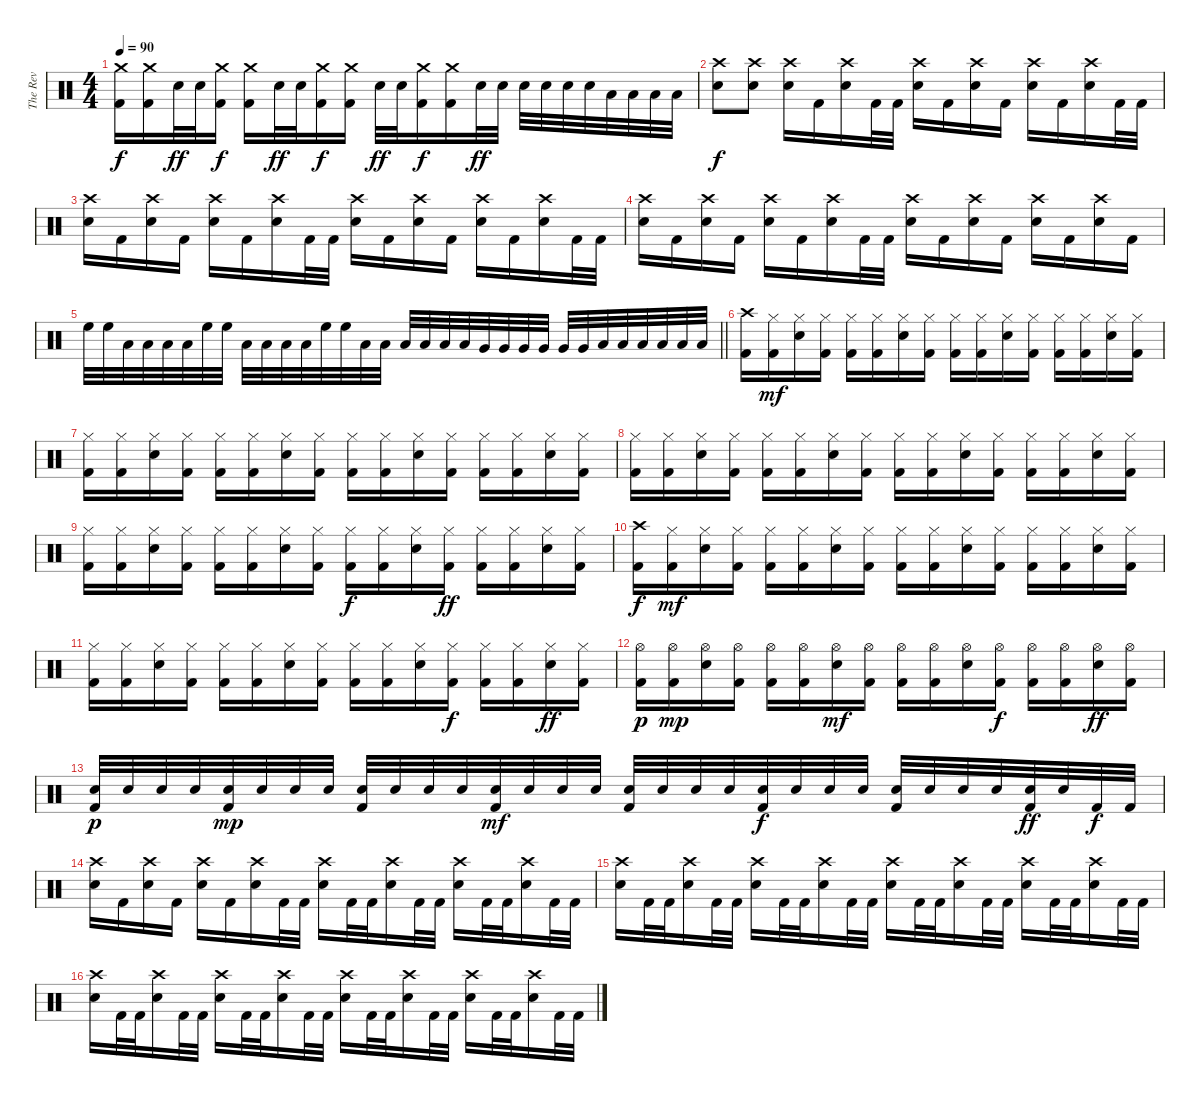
\track ("The Rev" "The Rev") {instrument percussion}
\staff {score}
\articulation defaults
\ts (4 4)
\tempo 90
\clef neutral
\ks c
("Crash medium (hit)" "Kick (hit) 2").16{dy f} ("Crash medium (hit)" "Kick (hit) 2").16 "Electric Snare (hit)".32{dy ff} "Electric Snare (hit)".32 ("Crash medium (hit)" "Kick (hit) 2").16{dy f} ("Crash medium (hit)" "Kick (hit) 2").16 "Electric Snare (hit)".32{dy ff} "Electric Snare (hit)".32 ("Crash medium (hit)" "Kick (hit) 2").16{dy f} ("Crash medium (hit)" "Kick (hit) 2").16 "Electric Snare (hit)".32{dy ff} "Electric Snare (hit)".32 ("Crash medium (hit)" "Kick (hit) 2").16{dy f} ("Crash medium (hit)" "Kick (hit) 2").16 "Electric Snare (hit)".32{dy ff} "Electric Snare (hit)".32 "Electric Snare (hit)".32 "Electric Snare (hit)".32 "Electric Snare (hit)".32 "Electric Snare (hit)".32 "Low Tom (hit)".32 "Low Tom (hit)".32 "Low Tom (hit)".32 "Low Tom (hit)".32 |
("Crash high (hit)" "Electric Snare (hit)").8{dy f} ("Crash high (hit)" "Electric Snare (hit)").8 ("Crash high (hit)" "Electric Snare (hit)").16 "Kick (hit) 2".16 ("Crash high (hit)" "Electric Snare (hit)").16 "Kick (hit) 2".32 "Kick (hit) 2".32 ("Crash high (hit)" "Electric Snare (hit)").16 "Kick (hit) 2".16 ("Crash high (hit)" "Electric Snare (hit)").16 "Kick (hit) 2".16 ("Crash high (hit)" "Electric Snare (hit)").16 "Kick (hit) 2".16 ("Crash high (hit)" "Electric Snare (hit)").16 "Kick (hit) 2".32 "Kick (hit) 2".32 |
("Crash high (hit)" "Electric Snare (hit)").16 "Kick (hit) 2".16 ("Crash high (hit)" "Electric Snare (hit)").16 "Kick (hit) 2".16 ("Crash high (hit)" "Electric Snare (hit)").16 "Kick (hit) 2".16 ("Crash high (hit)" "Electric Snare (hit)").16 "Kick (hit) 2".32 "Kick (hit) 2".32 ("Crash high (hit)" "Electric Snare (hit)").16 "Kick (hit) 2".16 ("Crash high (hit)" "Electric Snare (hit)").16 "Kick (hit) 2".16 ("Crash high (hit)" "Electric Snare (hit)").16 "Kick (hit) 2".16 ("Crash high (hit)" "Electric Snare (hit)").16 "Kick (hit) 2".32 "Kick (hit) 2".32 |
("Crash high (hit)" "Electric Snare (hit)").16 "Kick (hit) 2".16 ("Crash high (hit)" "Electric Snare (hit)").16 "Kick (hit) 2".16 ("Crash high (hit)" "Electric Snare (hit)").16 "Kick (hit) 2".16 ("Crash high (hit)" "Electric Snare (hit)").16 "Kick (hit) 2".32 "Kick (hit) 2".32 ("Crash high (hit)" "Electric Snare (hit)").16 "Kick (hit) 2".16 ("Crash high (hit)" "Electric Snare (hit)").16 "Kick (hit) 2".16 ("Crash high (hit)" "Electric Snare (hit)").16 "Kick (hit) 2".16 ("Crash high (hit)" "Electric Snare (hit)").16 "Kick (hit) 2".16 |
\barLineRight lightlight "High Floor Tom (hit)".32 "High Floor Tom (hit)".32 "Low Tom (hit)".32 "Low Tom (hit)".32 "Low Tom (hit)".32 "Low Tom (hit)".32 "High Floor Tom (hit)".32 "High Floor Tom (hit)".32 "Low Tom (hit)".32 "Low Tom (hit)".32 "Low Tom (hit)".32 "Low Tom (hit)".32 "High Floor Tom (hit)".32 "High Floor Tom (hit)".32 "Low Tom (hit)".32 "Low Tom (hit)".32 "Low Tom (hit)".32 "Low Tom (hit)".32 "Low Tom (hit)".32 "Low Tom (hit)".32 "Very Low Tom (hit)".32 "Very Low Tom (hit)".32 "Very Low Tom (hit)".32 "Very Low Tom (hit)".32 "Very Low Tom (hit)".32 "Very Low Tom (hit)".32 "Low Floor Tom (hit)".32 "Low Floor Tom (hit)".32 "Low Floor Tom (hit)".32 "Low Floor Tom (hit)".32 "Low Floor Tom (hit)".32 "Low Floor Tom (hit)".32
|
("Crash high (hit)" "Kick (hit) 2").16 ("Hi-Hat (closed)" "Kick (hit) 2").16{dy mf} ("Hi-Hat (closed)" "Electric Snare (hit)").16 ("Hi-Hat (closed)" "Kick (hit) 2").16 ("Hi-Hat (closed)" "Kick (hit) 2").16 ("Hi-Hat (closed)" "Kick (hit) 2").16 ("Hi-Hat (closed)" "Electric Snare (hit)").16 ("Hi-Hat (closed)" "Kick (hit) 2").16 ("Hi-Hat (closed)" "Kick (hit) 2").16 ("Hi-Hat (closed)" "Kick (hit) 2").16 ("Hi-Hat (closed)" "Electric Snare (hit)").16 ("Hi-Hat (closed)" "Kick (hit) 2").16 ("Hi-Hat (closed)" "Kick (hit) 2").16 ("Hi-Hat (closed)" "Kick (hit) 2").16 ("Hi-Hat (closed)" "Electric Snare (hit)").16 ("Hi-Hat (closed)" "Kick (hit) 2").16 |
("Hi-Hat (closed)" "Kick (hit) 2").16 ("Hi-Hat (closed)" "Kick (hit) 2").16 ("Hi-Hat (closed)" "Electric Snare (hit)").16 ("Hi-Hat (closed)" "Kick (hit) 2").16 ("Hi-Hat (closed)" "Kick (hit) 2").16 ("Hi-Hat (closed)" "Kick (hit) 2").16 ("Hi-Hat (closed)" "Electric Snare (hit)").16 ("Hi-Hat (closed)" "Kick (hit) 2").16 ("Hi-Hat (closed)" "Kick (hit) 2").16 ("Hi-Hat (closed)" "Kick (hit) 2").16 ("Hi-Hat (closed)" "Electric Snare (hit)").16 ("Hi-Hat (closed)" "Kick (hit) 2").16 ("Hi-Hat (closed)" "Kick (hit) 2").16 ("Hi-Hat (closed)" "Kick (hit) 2").16 ("Hi-Hat (closed)" "Electric Snare (hit)").16 ("Hi-Hat (closed)" "Kick (hit) 2").16 |
("Hi-Hat (closed)" "Kick (hit) 2").16 ("Hi-Hat (closed)" "Kick (hit) 2").16 ("Hi-Hat (closed)" "Electric Snare (hit)").16 ("Hi-Hat (closed)" "Kick (hit) 2").16 ("Hi-Hat (closed)" "Kick (hit) 2").16 ("Hi-Hat (closed)" "Kick (hit) 2").16 ("Hi-Hat (closed)" "Electric Snare (hit)").16 ("Hi-Hat (closed)" "Kick (hit) 2").16 ("Hi-Hat (closed)" "Kick (hit) 2").16 ("Hi-Hat (closed)" "Kick (hit) 2").16 ("Hi-Hat (closed)" "Electric Snare (hit)").16 ("Hi-Hat (closed)" "Kick (hit) 2").16 ("Hi-Hat (closed)" "Kick (hit) 2").16 ("Hi-Hat (closed)" "Kick (hit) 2").16 ("Hi-Hat (closed)" "Electric Snare (hit)").16 ("Hi-Hat (closed)" "Kick (hit) 2").16 |
("Hi-Hat (closed)" "Kick (hit) 2").16 ("Hi-Hat (closed)" "Kick (hit) 2").16 ("Hi-Hat (closed)" "Electric Snare (hit)").16 ("Hi-Hat (closed)" "Kick (hit) 2").16 ("Hi-Hat (closed)" "Kick (hit) 2").16 ("Hi-Hat (closed)" "Kick (hit) 2").16 ("Hi-Hat (closed)" "Electric Snare (hit)").16 ("Hi-Hat (closed)" "Kick (hit) 2").16 ("Hi-Hat (closed)" "Kick (hit) 2").16{dy f} ("Hi-Hat (closed)" "Kick (hit) 2").16 ("Hi-Hat (closed)" "Electric Snare (hit)").16 ("Hi-Hat (closed)" "Kick (hit) 2").16{dy ff} ("Hi-Hat (closed)" "Kick (hit) 2").16 ("Hi-Hat (closed)" "Kick (hit) 2").16 ("Hi-Hat (closed)" "Electric Snare (hit)").16 ("Hi-Hat (closed)" "Kick (hit) 2").16 |
("Crash high (hit)" "Kick (hit) 2").16{dy f} ("Hi-Hat (closed)" "Kick (hit) 2").16{dy mf} ("Hi-Hat (closed)" "Electric Snare (hit)").16 ("Hi-Hat (closed)" "Kick (hit) 2").16 ("Hi-Hat (closed)" "Kick (hit) 2").16 ("Hi-Hat (closed)" "Kick (hit) 2").16 ("Hi-Hat (closed)" "Electric Snare (hit)").16 ("Hi-Hat (closed)" "Kick (hit) 2").16 ("Hi-Hat (closed)" "Kick (hit) 2").16 ("Hi-Hat (closed)" "Kick (hit) 2").16 ("Hi-Hat (closed)" "Electric Snare (hit)").16 ("Hi-Hat (closed)" "Kick (hit) 2").16 ("Hi-Hat (closed)" "Kick (hit) 2").16 ("Hi-Hat (closed)" "Kick (hit) 2").16 ("Hi-Hat (closed)" "Electric Snare (hit)").16 ("Hi-Hat (closed)" "Kick (hit) 2").16 |
("Hi-Hat (closed)" "Kick (hit) 2").16 ("Hi-Hat (closed)" "Kick (hit) 2").16 ("Hi-Hat (closed)" "Electric Snare (hit)").16 ("Hi-Hat (closed)" "Kick (hit) 2").16 ("Hi-Hat (closed)" "Kick (hit) 2").16 ("Hi-Hat (closed)" "Kick (hit) 2").16 ("Hi-Hat (closed)" "Electric Snare (hit)").16 ("Hi-Hat (closed)" "Kick (hit) 2").16 ("Hi-Hat (closed)" "Kick (hit) 2").16 ("Hi-Hat (closed)" "Kick (hit) 2").16 ("Hi-Hat (closed)" "Electric Snare (hit)").16 ("Hi-Hat (closed)" "Kick (hit) 2").16{dy f} ("Hi-Hat (closed)" "Kick (hit) 2").16 ("Hi-Hat (closed)" "Kick (hit) 2").16 ("Hi-Hat (closed)" "Electric Snare (hit)").16{dy ff} ("Hi-Hat (closed)" "Kick (hit) 2").16 |
("Hi-Hat (open)" "Kick (hit) 2").16{dy p} ("Hi-Hat (open)" "Kick (hit) 2").16{dy mp} ("Hi-Hat (open)" "Electric Snare (hit)").16 ("Hi-Hat (open)" "Kick (hit) 2").16 ("Hi-Hat (open)" "Kick (hit) 2").16 ("Hi-Hat (open)" "Kick (hit) 2").16 ("Hi-Hat (open)" "Electric Snare (hit)").16{dy mf} ("Hi-Hat (open)" "Kick (hit) 2").16 ("Hi-Hat (open)" "Kick (hit) 2").16 ("Hi-Hat (open)" "Kick (hit) 2").16 ("Hi-Hat (open)" "Electric Snare (hit)").16 ("Hi-Hat (open)" "Kick (hit) 2").16{dy f} ("Hi-Hat (open)" "Kick (hit) 2").16 ("Hi-Hat (open)" "Kick (hit) 2").16 ("Hi-Hat (open)" "Electric Snare (hit)").16{dy ff} ("Hi-Hat (open)" "Kick (hit) 2").16 |
("Electric Snare (hit)" "Kick (hit) 2").32{dy p} "Electric Snare (hit)".32 "Electric Snare (hit)".32 "Electric Snare (hit)".32 ("Electric Snare (hit)" "Kick (hit) 2").32{dy mp} "Electric Snare (hit)".32 "Electric Snare (hit)".32 "Electric Snare (hit)".32 ("Electric Snare (hit)" "Kick (hit) 2").32 "Electric Snare (hit)".32 "Electric Snare (hit)".32 "Electric Snare (hit)".32 ("Electric Snare (hit)" "Kick (hit) 2").32{dy mf} "Electric Snare (hit)".32 "Electric Snare (hit)".32 "Electric Snare (hit)".32 ("Electric Snare (hit)" "Kick (hit) 2").32 "Electric Snare (hit)".32 "Electric Snare (hit)".32 "Electric Snare (hit)".32 ("Electric Snare (hit)" "Kick (hit) 2").32{dy f} "Electric Snare (hit)".32 "Electric Snare (hit)".32 "Electric Snare (hit)".32 ("Electric Snare (hit)" "Kick (hit) 2").32 "Electric Snare (hit)".32 "Electric Snare (hit)".32 "Electric Snare (hit)".32 ("Electric Snare (hit)" "Kick (hit) 2").32{dy ff} "Electric Snare (hit)".32 "Kick (hit) 2".32{dy f} "Kick (hit) 2".32 |
("Crash high (hit)" "Electric Snare (hit)").16 "Kick (hit) 2".16 ("Crash high (hit)" "Electric Snare (hit)").16 "Kick (hit) 2".16 ("Crash high (hit)" "Electric Snare (hit)").16 "Kick (hit) 2".16 ("Crash high (hit)" "Electric Snare (hit)").16 "Kick (hit) 2".32 "Kick (hit) 2".32 ("Crash high (hit)" "Electric Snare (hit)").16 "Kick (hit) 2".32 "Kick (hit) 2".32 ("Crash high (hit)" "Electric Snare (hit)").16 "Kick (hit) 2".32 "Kick (hit) 2".32 ("Crash high (hit)" "Electric Snare (hit)").16 "Kick (hit) 2".32 "Kick (hit) 2".32 ("Crash high (hit)" "Electric Snare (hit)").16 "Kick (hit) 2".32 "Kick (hit) 2".32 |
("Crash high (hit)" "Electric Snare (hit)").16 "Kick (hit) 2".32 "Kick (hit) 2".32 ("Crash high (hit)" "Electric Snare (hit)").16 "Kick (hit) 2".32 "Kick (hit) 2".32 ("Crash high (hit)" "Electric Snare (hit)").16 "Kick (hit) 2".32 "Kick (hit) 2".32 ("Crash high (hit)" "Electric Snare (hit)").16 "Kick (hit) 2".32 "Kick (hit) 2".32 ("Crash high (hit)" "Electric Snare (hit)").16 "Kick (hit) 2".32 "Kick (hit) 2".32 ("Crash high (hit)" "Electric Snare (hit)").16 "Kick (hit) 2".32 "Kick (hit) 2".32 ("Crash high (hit)" "Electric Snare (hit)").16 "Kick (hit) 2".32 "Kick (hit) 2".32 ("Crash high (hit)" "Electric Snare (hit)").16 "Kick (hit) 2".32 "Kick (hit) 2".32 |
("Crash high (hit)" "Electric Snare (hit)").16 "Kick (hit) 2".32 "Kick (hit) 2".32 ("Crash high (hit)" "Electric Snare (hit)").16 "Kick (hit) 2".32 "Kick (hit) 2".32 ("Crash high (hit)" "Electric Snare (hit)").16 "Kick (hit) 2".32 "Kick (hit) 2".32 ("Crash high (hit)" "Electric Snare (hit)").16 "Kick (hit) 2".32 "Kick (hit) 2".32 ("Crash high (hit)" "Electric Snare (hit)").16 "Kick (hit) 2".32 "Kick (hit) 2".32 ("Crash high (hit)" "Electric Snare (hit)").16 "Kick (hit) 2".32 "Kick (hit) 2".32 ("Crash high (hit)" "Electric Snare (hit)").16 "Kick (hit) 2".32 "Kick (hit) 2".32 ("Crash high (hit)" "Electric Snare (hit)").16 "Kick (hit) 2".32 "Kick (hit) 2".32
